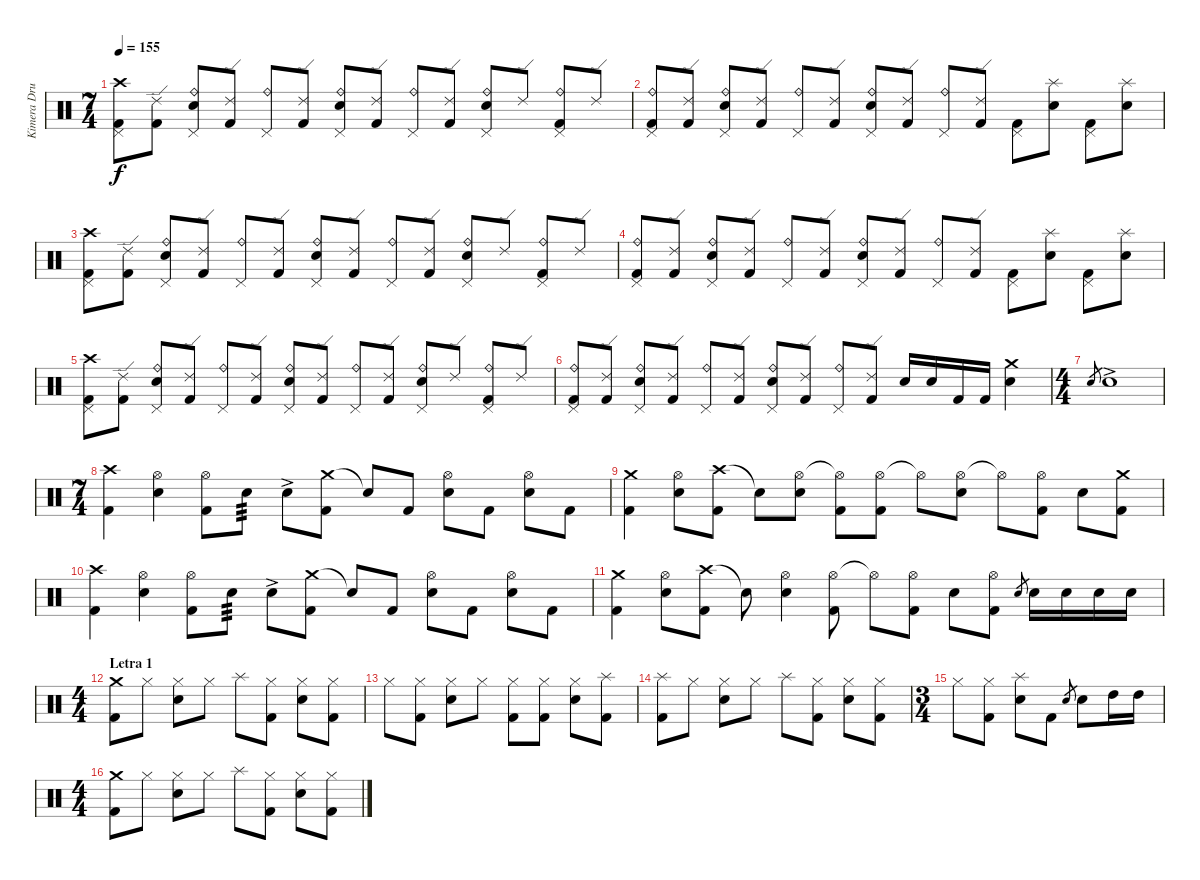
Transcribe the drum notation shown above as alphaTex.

\track ("Kimera Drummer" "Kimera Dru") {instrument percussion}
\staff {score}
\articulation defaults
\ts (7 4)
\tempo 155
\clef neutral
\ks c
("Crash high (hit)" "Pedal Hi-Hat (hit)" "Kick (hit) 2").8{dy f} ("Ride (edge) 2" "Kick (hit) 2").8 ("Ride (bell)" "Electric Snare (hit)" "Pedal Hi-Hat (hit)").8 ("Ride (edge) 2" "Kick (hit) 2").8 ("Ride (bell)" "Pedal Hi-Hat (hit)").8 ("Ride (edge) 2" "Kick (hit) 2").8 ("Ride (bell)" "Electric Snare (hit)" "Pedal Hi-Hat (hit)").8 ("Ride (edge) 2" "Kick (hit) 2").8 ("Ride (bell)" "Pedal Hi-Hat (hit)").8 ("Ride (edge) 2" "Kick (hit) 2").8 ("Ride (bell)" "Electric Snare (hit)" "Pedal Hi-Hat (hit)").8 "Ride (edge) 2".8 ("Ride (bell)" "Pedal Hi-Hat (hit)" "Kick (hit) 2").8 "Ride (edge) 2".8 |
("Ride (bell)" "Pedal Hi-Hat (hit)" "Kick (hit) 2").8 ("Ride (edge) 2" "Kick (hit) 2").8 ("Ride (bell)" "Electric Snare (hit)" "Pedal Hi-Hat (hit)").8 ("Ride (edge) 2" "Kick (hit) 2").8 ("Ride (bell)" "Pedal Hi-Hat (hit)").8 ("Ride (edge) 2" "Kick (hit) 2").8 ("Ride (bell)" "Electric Snare (hit)" "Pedal Hi-Hat (hit)").8 ("Ride (edge) 2" "Kick (hit) 2").8 ("Ride (bell)" "Pedal Hi-Hat (hit)").8 ("Ride (edge) 2" "Kick (hit) 2").8 ("Pedal Hi-Hat (hit)" "Kick (hit) 2").8 ("Splash (hit)" "Electric Snare (hit)").8 ("Pedal Hi-Hat (hit)" "Kick (hit) 2").8 ("Splash (hit)" "Electric Snare (hit)").8 |
("Crash high (hit)" "Pedal Hi-Hat (hit)" "Kick (hit) 2").8 ("Ride (edge) 2" "Kick (hit) 2").8 ("Ride (bell)" "Electric Snare (hit)" "Pedal Hi-Hat (hit)").8 ("Ride (edge) 2" "Kick (hit) 2").8 ("Ride (bell)" "Pedal Hi-Hat (hit)").8 ("Ride (edge) 2" "Kick (hit) 2").8 ("Ride (bell)" "Electric Snare (hit)" "Pedal Hi-Hat (hit)").8 ("Ride (edge) 2" "Kick (hit) 2").8 ("Ride (bell)" "Pedal Hi-Hat (hit)").8 ("Ride (edge) 2" "Kick (hit) 2").8 ("Ride (bell)" "Electric Snare (hit)" "Pedal Hi-Hat (hit)").8 "Ride (edge) 2".8 ("Ride (bell)" "Pedal Hi-Hat (hit)" "Kick (hit) 2").8 "Ride (edge) 2".8 |
("Ride (bell)" "Pedal Hi-Hat (hit)" "Kick (hit) 2").8 ("Ride (edge) 2" "Kick (hit) 2").8 ("Ride (bell)" "Electric Snare (hit)" "Pedal Hi-Hat (hit)").8 ("Ride (edge) 2" "Kick (hit) 2").8 ("Ride (bell)" "Pedal Hi-Hat (hit)").8 ("Ride (edge) 2" "Kick (hit) 2").8 ("Ride (bell)" "Electric Snare (hit)" "Pedal Hi-Hat (hit)").8 ("Ride (edge) 2" "Kick (hit) 2").8 ("Ride (bell)" "Pedal Hi-Hat (hit)").8 ("Ride (edge) 2" "Kick (hit) 2").8 ("Pedal Hi-Hat (hit)" "Kick (hit) 2").8 ("Splash (hit)" "Electric Snare (hit)").8 ("Pedal Hi-Hat (hit)" "Kick (hit) 2").8 ("Splash (hit)" "Electric Snare (hit)").8 |
("Crash high (hit)" "Pedal Hi-Hat (hit)" "Kick (hit) 2").8 ("Ride (edge) 2" "Kick (hit) 2").8 ("Ride (bell)" "Electric Snare (hit)" "Pedal Hi-Hat (hit)").8 ("Ride (edge) 2" "Kick (hit) 2").8 ("Ride (bell)" "Pedal Hi-Hat (hit)").8 ("Ride (edge) 2" "Kick (hit) 2").8 ("Ride (bell)" "Electric Snare (hit)" "Pedal Hi-Hat (hit)").8 ("Ride (edge) 2" "Kick (hit) 2").8 ("Ride (bell)" "Pedal Hi-Hat (hit)").8 ("Ride (edge) 2" "Kick (hit) 2").8 ("Ride (bell)" "Electric Snare (hit)" "Pedal Hi-Hat (hit)").8 "Ride (edge) 2".8 ("Ride (bell)" "Pedal Hi-Hat (hit)" "Kick (hit) 2").8 "Ride (edge) 2".8 |
("Ride (bell)" "Pedal Hi-Hat (hit)" "Kick (hit) 2").8 ("Ride (edge) 2" "Kick (hit) 2").8 ("Ride (bell)" "Electric Snare (hit)" "Pedal Hi-Hat (hit)").8 ("Ride (edge) 2" "Kick (hit) 2").8 ("Ride (bell)" "Pedal Hi-Hat (hit)").8 ("Ride (edge) 2" "Kick (hit) 2").8 ("Ride (bell)" "Electric Snare (hit)" "Pedal Hi-Hat (hit)").8 ("Ride (edge) 2" "Kick (hit) 2").8 ("Ride (bell)" "Pedal Hi-Hat (hit)").8 ("Ride (edge) 2" "Kick (hit) 2").8 "Electric Snare (hit)".16 "Electric Snare (hit)".16 "Kick (hit) 2".16 "Kick (hit) 2".16 ("Crash medium (hit)" "Electric Snare (hit)").4 |
\ts (4 4)
"Electric Snare (hit)".8{gr} "Electric Snare (hit)"{ac}.1 |
\ts (7 4)
("Crash high (hit)" "Kick (hit) 2").4 ("Hi-Hat (open)" "Electric Snare (hit)").4 ("Hi-Hat (open)" "Kick (hit) 2").8 "Electric Snare (hit)".8{tp 3} "Electric Snare (hit)"{ac}.8 ("Crash medium (hit)" "Kick (hit) 2").8 "Snare (hit)"{t}.8 "Kick (hit) 2".8 ("Hi-Hat (open)" "Electric Snare (hit)").8 "Kick (hit) 2".8 ("Hi-Hat (open)" "Electric Snare (hit)").8 "Kick (hit) 2".8 |
("Crash medium (hit)" "Kick (hit) 2").4 ("Hi-Hat (open)" "Electric Snare (hit)").8 ("Crash high (hit)" "Kick (hit) 2").8 "Snare (hit)"{t}.8 ("Hi-Hat (open)" "Electric Snare (hit)").8 ("Hi-Hat (open)"{t} "Kick (hit) 2").8 ("Hi-Hat (open)" "Kick (hit) 2").8 "Hi-Hat (open)"{t}.8 ("Hi-Hat (open)" "Electric Snare (hit)").8 "Hi-Hat (open)"{t}.8 ("Hi-Hat (open)" "Kick (hit) 2").8 "Electric Snare (hit)".8 ("Crash medium (hit)" "Kick (hit) 2").8 |
("Crash high (hit)" "Kick (hit) 2").4 ("Hi-Hat (open)" "Electric Snare (hit)").4 ("Hi-Hat (open)" "Kick (hit) 2").8 "Electric Snare (hit)".8{tp 3} "Electric Snare (hit)"{ac}.8 ("Crash medium (hit)" "Kick (hit) 2").8 "Snare (hit)"{t}.8 "Kick (hit) 2".8 ("Hi-Hat (open)" "Electric Snare (hit)").8 "Kick (hit) 2".8 ("Hi-Hat (open)" "Electric Snare (hit)").8 "Kick (hit) 2".8 |
("Crash medium (hit)" "Kick (hit) 2").4 ("Hi-Hat (open)" "Electric Snare (hit)").8 ("Crash high (hit)" "Kick (hit) 2").8 "Snare (hit)"{t}.8 ("Hi-Hat (open)" "Electric Snare (hit)").4 ("Hi-Hat (open)" "Kick (hit) 2").8 "Hi-Hat (open)"{t}.8 ("Hi-Hat (open)" "Kick (hit) 2").8 "Electric Snare (hit)".8 ("Hi-Hat (open)" "Kick (hit) 2").8 "Electric Snare (hit)".8{gr} "Electric Snare (hit)".16 "Electric Snare (hit)".16 "Electric Snare (hit)".16 "Electric Snare (hit)".16 |
\ts (4 4)
\section ("" "Letra 1")
("Crash medium (hit)" "Kick (hit) 2").8 "Hi-Hat (closed)".8 ("Hi-Hat (closed)" "Electric Snare (hit)").8 "Hi-Hat (closed)".8 "Splash (hit)".8 ("Hi-Hat (closed)" "Kick (hit) 2").8 ("Hi-Hat (closed)" "Electric Snare (hit)").8 ("Hi-Hat (closed)" "Kick (hit) 2").8 |
"Hi-Hat (closed)".8 ("Hi-Hat (closed)" "Kick (hit) 2").8 ("Hi-Hat (closed)" "Electric Snare (hit)").8 "Hi-Hat (closed)".8 ("Hi-Hat (closed)" "Kick (hit) 2").8 ("Hi-Hat (closed)" "Kick (hit) 2").8 ("Hi-Hat (closed)" "Electric Snare (hit)").8 ("Splash (hit)" "Kick (hit) 2").8 |
("Splash (hit)" "Kick (hit) 2").8 "Hi-Hat (closed)".8 ("Hi-Hat (closed)" "Electric Snare (hit)").8 "Hi-Hat (closed)".8 "Splash (hit)".8 ("Hi-Hat (closed)" "Kick (hit) 2").8 ("Hi-Hat (closed)" "Electric Snare (hit)").8 ("Hi-Hat (closed)" "Kick (hit) 2").8 |
\ts (3 4)
"Hi-Hat (closed)".8 ("Hi-Hat (closed)" "Kick (hit) 2").8 ("Splash (hit)" "Electric Snare (hit)").8 "Kick (hit) 2".8 "Electric Snare (hit)".8{gr} "Electric Snare (hit)".8 "High Tom (hit)".16 "High Tom (hit)".16 |
\ts (4 4)
("Crash medium (hit)" "Kick (hit) 2").8 "Hi-Hat (closed)".8 ("Hi-Hat (closed)" "Electric Snare (hit)").8 "Hi-Hat (closed)".8 "Splash (hit)".8 ("Hi-Hat (closed)" "Kick (hit) 2").8 ("Hi-Hat (closed)" "Electric Snare (hit)").8 ("Hi-Hat (closed)" "Kick (hit) 2").8
